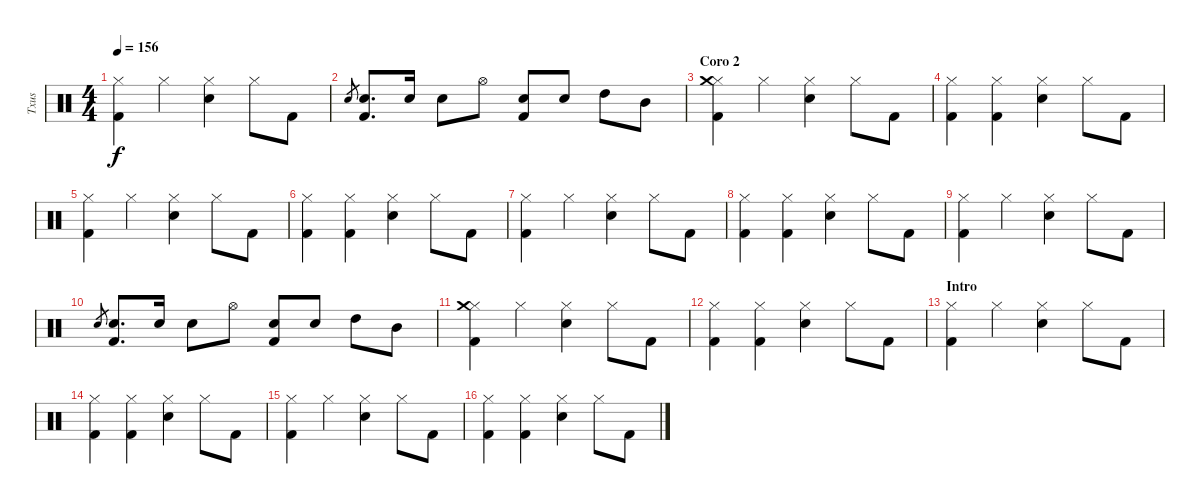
\track ("Txus" "Txus") {instrument percussion}
\staff {score}
\articulation defaults
\ts (4 4)
\tempo 156
\clef neutral
\ks c
("Hi-Hat (closed)" "Kick (hit) 2").4{dy f} "Hi-Hat (closed)".4 ("Snare (hit) 2" "Hi-Hat (closed)").4 "Hi-Hat (closed)".8 "Kick (hit) 2".8 |
"Snare (hit) 2".8{gr} ("Kick (hit) 2" "Snare (hit) 2").8{d} "Snare (hit) 2".16 "Snare (hit) 2".8 "Hi-Hat (open)".8 ("Kick (hit) 2" "Snare (hit) 2").8 "Snare (hit) 2".8 "High Tom (hit)".8 "Mid Tom (hit)".8 |
\section ("" "Coro 2")
("Hi-Hat (closed)" "Crash medium (hit)" "Kick (hit) 2").4 "Hi-Hat (closed)".4 ("Snare (hit) 2" "Hi-Hat (closed)").4 "Hi-Hat (closed)".8 "Kick (hit) 2".8 |
("Kick (hit) 2" "Hi-Hat (closed)").4 ("Hi-Hat (closed)" "Kick (hit) 2").4 ("Hi-Hat (closed)" "Snare (hit) 2").4 "Hi-Hat (closed)".8 "Kick (hit) 2".8 |
("Hi-Hat (closed)" "Kick (hit) 2").4 "Hi-Hat (closed)".4 ("Snare (hit) 2" "Hi-Hat (closed)").4 "Hi-Hat (closed)".8 "Kick (hit) 2".8 |
("Kick (hit) 2" "Hi-Hat (closed)").4 ("Hi-Hat (closed)" "Kick (hit) 2").4 ("Hi-Hat (closed)" "Snare (hit) 2").4 "Hi-Hat (closed)".8 "Kick (hit) 2".8 |
("Hi-Hat (closed)" "Kick (hit) 2").4 "Hi-Hat (closed)".4 ("Snare (hit) 2" "Hi-Hat (closed)").4 "Hi-Hat (closed)".8 "Kick (hit) 2".8 |
("Kick (hit) 2" "Hi-Hat (closed)").4 ("Hi-Hat (closed)" "Kick (hit) 2").4 ("Hi-Hat (closed)" "Snare (hit) 2").4 "Hi-Hat (closed)".8 "Kick (hit) 2".8 |
("Hi-Hat (closed)" "Kick (hit) 2").4 "Hi-Hat (closed)".4 ("Snare (hit) 2" "Hi-Hat (closed)").4 "Hi-Hat (closed)".8 "Kick (hit) 2".8 |
"Snare (hit) 2".8{gr} ("Kick (hit) 2" "Snare (hit) 2").8{d} "Snare (hit) 2".16 "Snare (hit) 2".8 "Hi-Hat (open)".8 ("Kick (hit) 2" "Snare (hit) 2").8 "Snare (hit) 2".8 "High Tom (hit)".8 "Mid Tom (hit)".8 |
("Hi-Hat (closed)" "Crash medium (hit)" "Kick (hit) 2").4 "Hi-Hat (closed)".4 ("Snare (hit) 2" "Hi-Hat (closed)").4 "Hi-Hat (closed)".8 "Kick (hit) 2".8 |
("Kick (hit) 2" "Hi-Hat (closed)").4 ("Hi-Hat (closed)" "Kick (hit) 2").4 ("Hi-Hat (closed)" "Snare (hit) 2").4 "Hi-Hat (closed)".8 "Kick (hit) 2".8 |
\section ("" "Intro")
("Hi-Hat (closed)" "Kick (hit) 2").4 "Hi-Hat (closed)".4 ("Snare (hit) 2" "Hi-Hat (closed)").4 "Hi-Hat (closed)".8 "Kick (hit) 2".8 |
("Kick (hit) 2" "Hi-Hat (closed)").4 ("Hi-Hat (closed)" "Kick (hit) 2").4 ("Hi-Hat (closed)" "Snare (hit) 2").4 "Hi-Hat (closed)".8 "Kick (hit) 2".8 |
("Hi-Hat (closed)" "Kick (hit) 2").4 "Hi-Hat (closed)".4 ("Snare (hit) 2" "Hi-Hat (closed)").4 "Hi-Hat (closed)".8 "Kick (hit) 2".8 |
("Kick (hit) 2" "Hi-Hat (closed)").4 ("Hi-Hat (closed)" "Kick (hit) 2").4 ("Hi-Hat (closed)" "Snare (hit) 2").4 "Hi-Hat (closed)".8 "Kick (hit) 2".8
